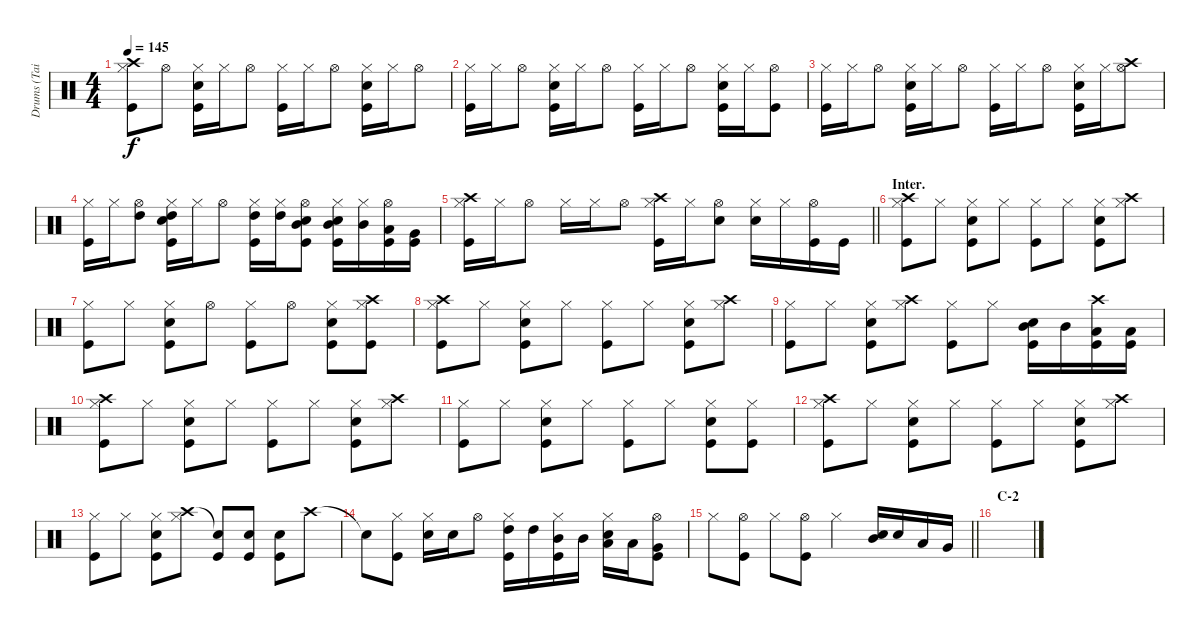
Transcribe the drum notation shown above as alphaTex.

\track ("Drums (Tainaka Ritsu)" "Drums (Tai") {instrument percussion}
\staff {score}
\articulation defaults
\ts (4 4)
\tempo 145
\clef neutral
\ks c
("Crash high (hit)" "Hi-Hat (closed)" "Kick (hit)").8{dy f} "Hi-Hat (open)".8 ("Hi-Hat (closed)" "Snare (hit) 2" "Kick (hit)").16 "Hi-Hat (closed)".16 "Hi-Hat (open)".8 ("Hi-Hat (closed)" "Kick (hit)").16 "Hi-Hat (closed)".16 "Hi-Hat (open)".8 ("Hi-Hat (closed)" "Snare (hit) 2" "Kick (hit)").16 "Hi-Hat (closed)".16 "Hi-Hat (open)".8 |
("Hi-Hat (closed)" "Kick (hit)").16 "Hi-Hat (closed)".16 "Hi-Hat (open)".8 ("Hi-Hat (closed)" "Snare (hit) 2" "Kick (hit)").16 "Hi-Hat (closed)".16 "Hi-Hat (open)".8 ("Hi-Hat (closed)" "Kick (hit)").16 "Hi-Hat (closed)".16 "Hi-Hat (open)".8 ("Hi-Hat (closed)" "Snare (hit) 2" "Kick (hit)").16 "Hi-Hat (closed)".16 ("Hi-Hat (open)" "Kick (hit)").8 |
("Hi-Hat (closed)" "Kick (hit)").16 "Hi-Hat (closed)".16 "Hi-Hat (open)".8 ("Hi-Hat (closed)" "Snare (hit) 2" "Kick (hit)").16 "Hi-Hat (closed)".16 "Hi-Hat (open)".8 ("Hi-Hat (closed)" "Kick (hit)").16 "Hi-Hat (closed)".16 "Hi-Hat (open)".8 ("Hi-Hat (closed)" "Snare (hit) 2" "Kick (hit)").16 "Hi-Hat (closed)".16 ("Hi-Hat (open)" "Crash high (hit)").8 |
("Hi-Hat (closed)" "Kick (hit)").16 "Hi-Hat (closed)".16 ("Hi-Hat (open)" "High Tom (hit)").8 ("Hi-Hat (closed)" "Snare (hit) 2" "High Tom (hit)" "Kick (hit)").16 "Hi-Hat (closed)".16 "Hi-Hat (open)".8 ("Hi-Hat (closed)" "High Tom (hit)" "Kick (hit)").16 ("Hi-Hat (closed)" "High Tom (hit)").16 ("Hi-Hat (open)" "Snare (hit) 2" "Mid Tom (hit)" "Kick (hit)").8 ("Hi-Hat (closed)" "Snare (hit) 2" "Mid Tom (hit)" "Kick (hit)").16 ("Hi-Hat (closed)" "Mid Tom (hit)").16 ("Hi-Hat (open)" "Low Tom (hit)" "Kick (hit)").16 ("Very Low Tom (hit)" "Kick (hit)").16 |
\barLineRight lightlight
("Crash high (hit)" "Hi-Hat (closed)" "Kick (hit)").16 "Hi-Hat (closed)".16 "Hi-Hat (open)".8 "Hi-Hat (closed)".16 "Hi-Hat (closed)".16 "Hi-Hat (open)".8 ("Crash high (hit)" "Hi-Hat (closed)" "Kick (hit)").16 "Hi-Hat (closed)".16 ("Hi-Hat (open)" "Snare (hit) 2").8 ("Hi-Hat (closed)" "Snare (hit) 2").16 "Hi-Hat (closed)".16 ("Hi-Hat (open)" "Kick (hit)").16 "Kick (hit)".16 |
\section ("" "Inter.")
("Crash high (hit)" "Hi-Hat (closed)" "Kick (hit)").8 "Hi-Hat (closed)".8 ("Hi-Hat (closed)" "Snare (hit) 2" "Kick (hit)").8 "Hi-Hat (closed)".8 ("Hi-Hat (closed)" "Kick (hit)").8 "Hi-Hat (closed)".8 ("Hi-Hat (closed)" "Snare (hit) 2" "Kick (hit)").8 ("Crash high (hit)" "Hi-Hat (closed)").8 |
("Hi-Hat (closed)" "Kick (hit)").8 "Hi-Hat (closed)".8 ("Hi-Hat (closed)" "Snare (hit) 2" "Kick (hit)").8 "Hi-Hat (open)".8 ("Hi-Hat (closed)" "Kick (hit)").8 "Hi-Hat (open)".8 ("Hi-Hat (closed)" "Snare (hit) 2" "Kick (hit)").8 ("Crash high (hit)" "Hi-Hat (closed)" "Kick (hit)").8 |
("Crash high (hit)" "Hi-Hat (closed)" "Kick (hit)").8 "Hi-Hat (closed)".8 ("Hi-Hat (closed)" "Snare (hit) 2" "Kick (hit)").8 "Hi-Hat (closed)".8 ("Hi-Hat (closed)" "Kick (hit)").8 "Hi-Hat (closed)".8 ("Hi-Hat (closed)" "Snare (hit) 2" "Kick (hit)").8 ("Crash high (hit)" "Hi-Hat (closed)").8 |
("Hi-Hat (closed)" "Kick (hit)").8 "Hi-Hat (closed)".8 ("Hi-Hat (closed)" "Snare (hit) 2" "Kick (hit)").8 ("Crash high (hit)" "Hi-Hat (closed)").8 ("Hi-Hat (closed)" "Kick (hit)").8 "Hi-Hat (closed)".8 ("Snare (hit) 2" "Mid Tom (hit)" "Kick (hit)").16 "Mid Tom (hit)".16 ("Crash high (hit)" "Low Tom (hit)" "Kick (hit)").16 ("Low Tom (hit)" "Kick (hit)").16 |
("Crash high (hit)" "Hi-Hat (closed)" "Kick (hit)").8 "Hi-Hat (closed)".8 ("Hi-Hat (closed)" "Snare (hit) 2" "Kick (hit)").8 "Hi-Hat (closed)".8 ("Hi-Hat (closed)" "Kick (hit)").8 "Hi-Hat (closed)".8 ("Hi-Hat (closed)" "Snare (hit) 2" "Kick (hit)").8 ("Crash high (hit)" "Hi-Hat (closed)").8 |
("Hi-Hat (closed)" "Kick (hit)").8 "Hi-Hat (closed)".8 ("Hi-Hat (closed)" "Snare (hit) 2" "Kick (hit)").8 "Hi-Hat (closed)".8 ("Hi-Hat (closed)" "Kick (hit)").8 "Hi-Hat (closed)".8 ("Hi-Hat (closed)" "Snare (hit) 2" "Kick (hit)").8 ("Hi-Hat (closed)" "Kick (hit)").8 |
("Crash high (hit)" "Hi-Hat (closed)" "Kick (hit)").8 "Hi-Hat (closed)".8 ("Hi-Hat (closed)" "Snare (hit) 2" "Kick (hit)").8 "Hi-Hat (closed)".8 ("Hi-Hat (closed)" "Kick (hit)").8 "Hi-Hat (closed)".8 ("Hi-Hat (closed)" "Snare (hit) 2" "Kick (hit)").8 ("Crash high (hit)" "Hi-Hat (closed)").8 |
("Hi-Hat (closed)" "Kick (hit)").8 "Hi-Hat (closed)".8 ("Hi-Hat (closed)" "Snare (hit) 2" "Kick (hit)").8 ("Crash high (hit)" "Hi-Hat (closed)").8 ("Snare (hit)"{t} "Kick (hit)").8 ("Snare (hit) 2" "Kick (hit)").8 ("Snare (hit) 2" "Kick (hit)").8 "Crash high (hit)".8 |
"Snare (hit)"{t}.8 ("Hi-Hat (closed)" "Kick (hit)").8 ("Hi-Hat (closed)" "Snare (hit) 2").16 "Snare (hit) 2".16 "Hi-Hat (open)".8 ("Hi-Hat (closed)" "High Tom (hit)" "Kick (hit)").16 "High Tom (hit)".16 ("Hi-Hat (closed)" "Mid Tom (hit)" "Kick (hit)").16 "Mid Tom (hit)".16 ("Hi-Hat (closed)" "Snare (hit) 2" "Low Tom (hit)").16 "Low Tom (hit)".16 ("Hi-Hat (open)" "Very Low Tom (hit)" "Kick (hit)").8 |
\barLineRight lightlight "Hi-Hat (closed)".8
("Hi-Hat (open)" "Kick (hit)").8 "Hi-Hat (closed)".8 ("Hi-Hat (open)" "Kick (hit)").8 "Hi-Hat (closed)".4 ("Snare (hit) 2" "Mid Tom (hit)").16 "Snare (hit) 2".16 "Low Tom (hit)".16 "Very Low Tom (hit)".16 |
\section ("" "C-2")
